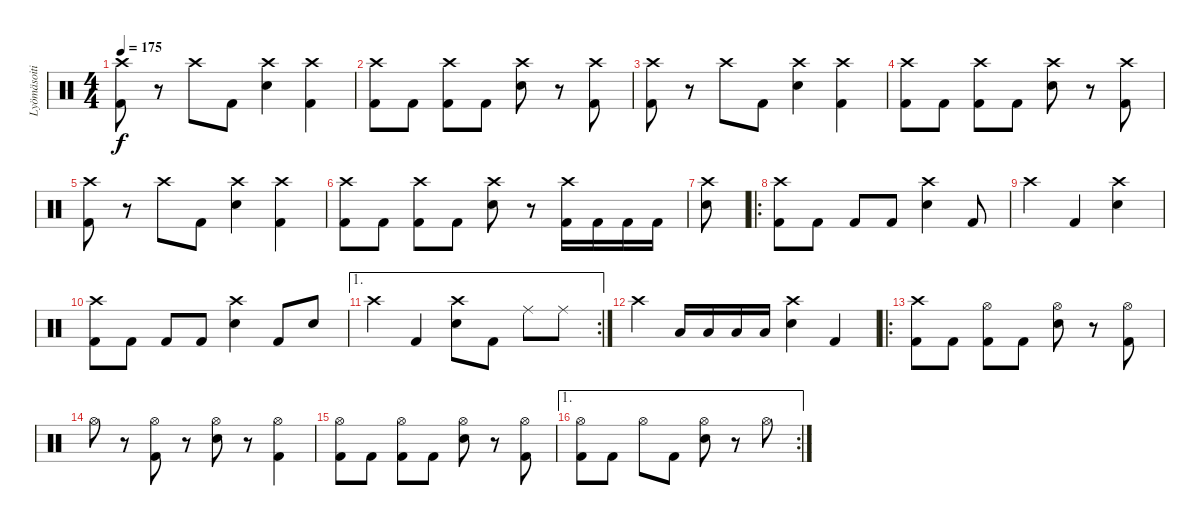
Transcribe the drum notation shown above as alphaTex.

\track ("Lyömäsoitin" "Lyömäsoiti") {instrument percussion}
\staff {score}
\articulation defaults
\ts (4 4)
\tempo 175
\clef neutral
\ks c
("Kick (hit) 2" "Crash high (hit)").8{dy f} r.8 "Crash high (hit)".8 "Kick (hit) 2".8 ("Electric Snare (hit)" "Crash high (hit)").4 ("Kick (hit) 2" "Crash high (hit)").4 |
("Kick (hit) 2" "Crash high (hit)").8 "Kick (hit) 2".8 ("Kick (hit) 2" "Crash high (hit)").8 "Kick (hit) 2".8 ("Electric Snare (hit)" "Crash high (hit)").8 r.8 ("Kick (hit) 2" "Crash high (hit)").8 |
("Kick (hit) 2" "Crash high (hit)").8 r.8 "Crash high (hit)".8 "Kick (hit) 2".8 ("Electric Snare (hit)" "Crash high (hit)").4 ("Kick (hit) 2" "Crash high (hit)").4 |
("Kick (hit) 2" "Crash high (hit)").8 "Kick (hit) 2".8 ("Kick (hit) 2" "Crash high (hit)").8 "Kick (hit) 2".8 ("Electric Snare (hit)" "Crash high (hit)").8 r.8 ("Kick (hit) 2" "Crash high (hit)").8 |
("Kick (hit) 2" "Crash high (hit)").8 r.8 "Crash high (hit)".8 "Kick (hit) 2".8 ("Electric Snare (hit)" "Crash high (hit)").4 ("Kick (hit) 2" "Crash high (hit)").4 |
("Kick (hit) 2" "Crash high (hit)").8 "Kick (hit) 2".8 ("Kick (hit) 2" "Crash high (hit)").8 "Kick (hit) 2".8 ("Electric Snare (hit)" "Crash high (hit)").8 r.8 ("Kick (hit) 2" "Crash high (hit)").16 "Kick (hit) 2".16 "Kick (hit) 2".16 "Kick (hit) 2".16 |
("Electric Snare (hit)" "Crash high (hit)").8 |
\ro
("Kick (hit) 2" "Crash high (hit)").8 "Kick (hit) 2".8 "Kick (hit) 2".8 "Kick (hit) 2".8 ("Electric Snare (hit)" "Crash high (hit)").4 "Kick (hit) 2".8 |
"Crash high (hit)".4 "Kick (hit) 2".4 ("Electric Snare (hit)" "Crash high (hit)").4 |
("Kick (hit) 2" "Crash high (hit)").8 "Kick (hit) 2".8 "Kick (hit) 2".8 "Kick (hit) 2".8 ("Electric Snare (hit)" "Crash high (hit)").4 "Kick (hit) 2".8 "Electric Snare (hit)".8 |
\ae 1
\rc 2 "Crash high (hit)".4 "Kick (hit) 2".4
("Electric Snare (hit)" "Crash high (hit)").8 "Kick (hit) 2".8 "Ride (middle)".8 "Ride (middle)".8 |
"Crash high (hit)".4 "Low Floor Tom (hit)".16 "Low Floor Tom (hit)".16 "Low Floor Tom (hit)".16 "Low Floor Tom (hit)".16 ("Electric Snare (hit)" "Crash high (hit)").4 "Kick (hit) 2".4 |
\ro
("Kick (hit) 2" "Crash high (hit)").8 "Kick (hit) 2".8 ("Kick (hit) 2" "Hi-Hat (open)").8 "Kick (hit) 2".8 ("Electric Snare (hit)" "Hi-Hat (open)").8 r.8 ("Kick (hit) 2" "Hi-Hat (open)").8 |
"Hi-Hat (open)".8 r.8 ("Kick (hit) 2" "Hi-Hat (open)").8 r.8 ("Electric Snare (hit)" "Hi-Hat (open)").8 r.8 ("Kick (hit) 2" "Hi-Hat (open)").4 |
("Kick (hit) 2" "Hi-Hat (open)").8 "Kick (hit) 2".8 ("Kick (hit) 2" "Hi-Hat (open)").8 "Kick (hit) 2".8 ("Electric Snare (hit)" "Hi-Hat (open)").8 r.8 ("Kick (hit) 2" "Hi-Hat (open)").8 |
\ae 1
\rc 2
("Kick (hit) 2" "Hi-Hat (open)").8 "Kick (hit) 2".8 "Hi-Hat (open)".8 "Kick (hit) 2".8 ("Electric Snare (hit)" "Hi-Hat (open)").8 r.8 "Hi-Hat (open)".8
